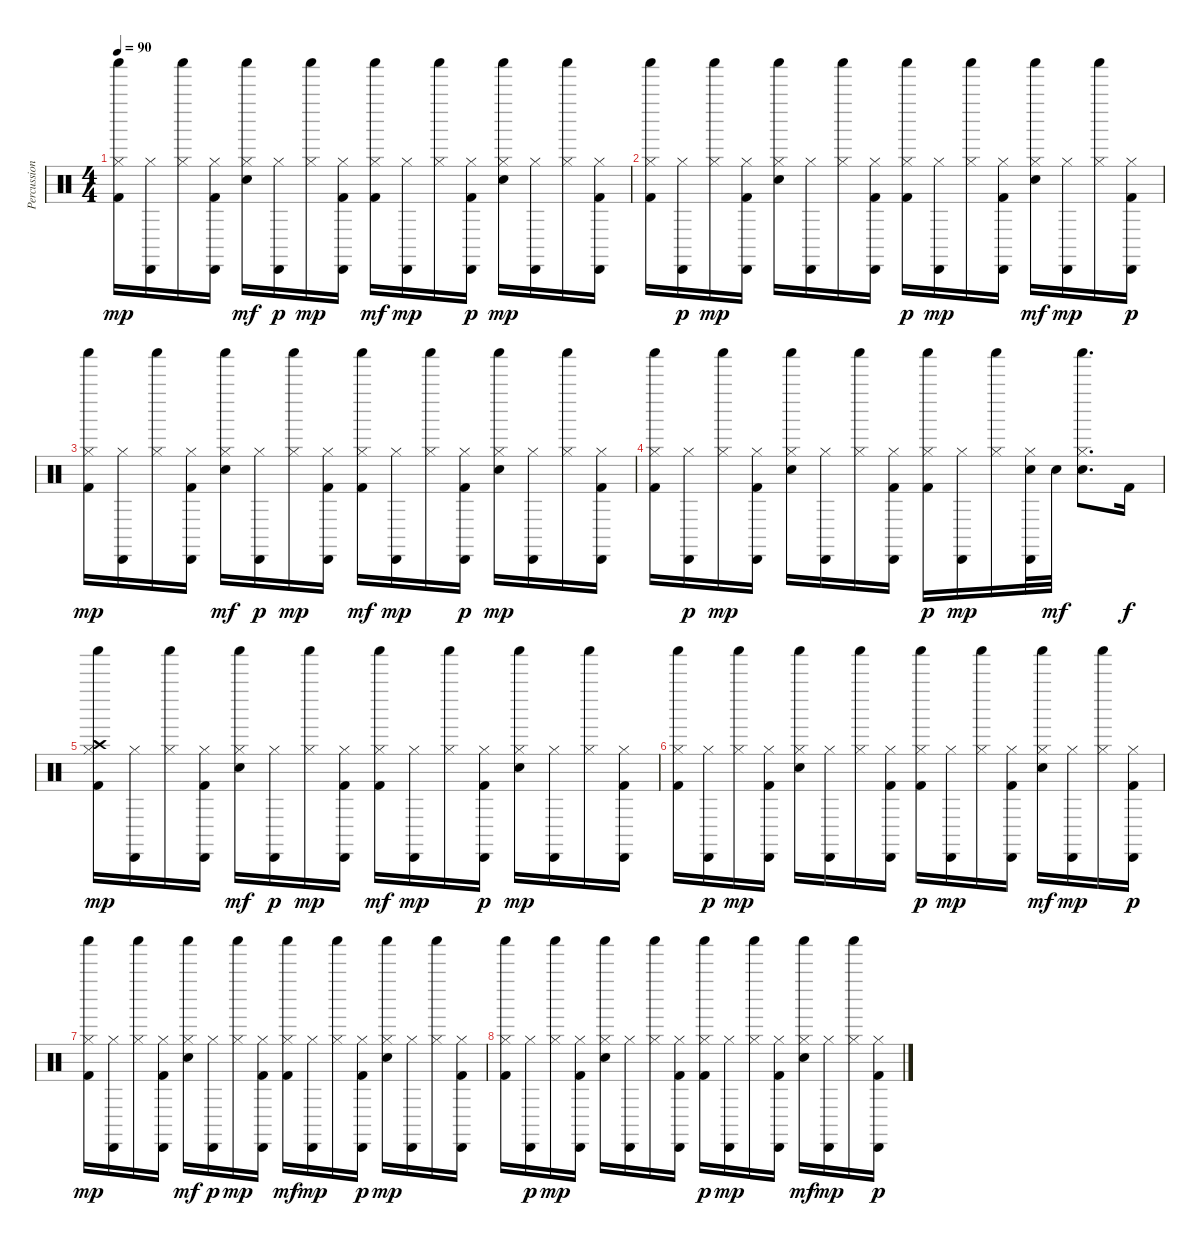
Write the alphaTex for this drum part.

\track ("Percussions" "Percussion") {instrument percussion}
\staff {score}
\articulation defaults
\ts (4 4)
\tempo 90
\clef neutral
\ks c
("Kick (hit) 2" "Hi-Hat (closed)" "Shaker (hit)").16{dy mp} ("Hi-Hat (closed)" "Cabasa (hit)").16 ("Hi-Hat (closed)" "Shaker (hit)").16 ("Kick (hit) 2" "Hi-Hat (closed)" "Cabasa (hit)").16 ("Electric Snare (hit)" "Hi-Hat (closed)" "Shaker (hit)").16{dy mf} ("Hi-Hat (closed)" "Cabasa (hit)").16{dy p} ("Hi-Hat (closed)" "Shaker (hit)").16{dy mp} ("Kick (hit) 2" "Hi-Hat (closed)" "Cabasa (hit)").16 ("Kick (hit) 2" "Hi-Hat (closed)" "Shaker (hit)").16{dy mf} ("Hi-Hat (closed)" "Cabasa (hit)").16{dy mp} ("Hi-Hat (closed)" "Shaker (hit)").16 ("Kick (hit) 2" "Hi-Hat (closed)" "Cabasa (hit)").16{dy p} ("Electric Snare (hit)" "Hi-Hat (closed)" "Shaker (hit)").16{dy mp} ("Hi-Hat (closed)" "Cabasa (hit)").16 ("Hi-Hat (closed)" "Shaker (hit)").16 ("Kick (hit) 2" "Hi-Hat (closed)" "Cabasa (hit)").16 |
("Kick (hit) 2" "Hi-Hat (closed)" "Shaker (hit)").16 ("Hi-Hat (closed)" "Cabasa (hit)").16{dy p} ("Hi-Hat (closed)" "Shaker (hit)").16{dy mp} ("Kick (hit) 2" "Hi-Hat (closed)" "Cabasa (hit)").16 ("Electric Snare (hit)" "Hi-Hat (closed)" "Shaker (hit)").16 ("Hi-Hat (closed)" "Cabasa (hit)").16 ("Hi-Hat (closed)" "Shaker (hit)").16 ("Kick (hit) 2" "Hi-Hat (closed)" "Cabasa (hit)").16 ("Kick (hit) 2" "Hi-Hat (closed)" "Shaker (hit)").16{dy p} ("Hi-Hat (closed)" "Cabasa (hit)").16{dy mp} ("Hi-Hat (closed)" "Shaker (hit)").16 ("Kick (hit) 2" "Hi-Hat (closed)" "Cabasa (hit)").16 ("Electric Snare (hit)" "Hi-Hat (closed)" "Shaker (hit)").16{dy mf} ("Hi-Hat (closed)" "Cabasa (hit)").16{dy mp} ("Hi-Hat (closed)" "Shaker (hit)").16 ("Kick (hit) 2" "Hi-Hat (closed)" "Cabasa (hit)").16{dy p} |
("Kick (hit) 2" "Hi-Hat (closed)" "Shaker (hit)").16{dy mp} ("Hi-Hat (closed)" "Cabasa (hit)").16 ("Hi-Hat (closed)" "Shaker (hit)").16 ("Kick (hit) 2" "Hi-Hat (closed)" "Cabasa (hit)").16 ("Electric Snare (hit)" "Hi-Hat (closed)" "Shaker (hit)").16{dy mf} ("Hi-Hat (closed)" "Cabasa (hit)").16{dy p} ("Hi-Hat (closed)" "Shaker (hit)").16{dy mp} ("Kick (hit) 2" "Hi-Hat (closed)" "Cabasa (hit)").16 ("Kick (hit) 2" "Hi-Hat (closed)" "Shaker (hit)").16{dy mf} ("Hi-Hat (closed)" "Cabasa (hit)").16{dy mp} ("Hi-Hat (closed)" "Shaker (hit)").16 ("Kick (hit) 2" "Hi-Hat (closed)" "Cabasa (hit)").16{dy p} ("Electric Snare (hit)" "Hi-Hat (closed)" "Shaker (hit)").16{dy mp} ("Hi-Hat (closed)" "Cabasa (hit)").16 ("Hi-Hat (closed)" "Shaker (hit)").16 ("Kick (hit) 2" "Hi-Hat (closed)" "Cabasa (hit)").16 |
("Kick (hit) 2" "Hi-Hat (closed)" "Shaker (hit)").16 ("Hi-Hat (closed)" "Cabasa (hit)").16{dy p} ("Hi-Hat (closed)" "Shaker (hit)").16{dy mp} ("Kick (hit) 2" "Hi-Hat (closed)" "Cabasa (hit)").16 ("Electric Snare (hit)" "Hi-Hat (closed)" "Shaker (hit)").16 ("Hi-Hat (closed)" "Cabasa (hit)").16 ("Hi-Hat (closed)" "Shaker (hit)").16 ("Kick (hit) 2" "Hi-Hat (closed)" "Cabasa (hit)").16 ("Kick (hit) 2" "Hi-Hat (closed)" "Shaker (hit)").16{dy p} ("Hi-Hat (closed)" "Cabasa (hit)").16{dy mp} ("Hi-Hat (closed)" "Shaker (hit)").16 ("Electric Snare (hit)" "Hi-Hat (closed)" "Cabasa (hit)").32 "Snare (hit) 2".32{dy mf} ("Electric Snare (hit)" "Hi-Hat (closed)" "Shaker (hit)").8{d} "Kick (hit) 2".16{dy f} |
("Kick (hit) 2" "Hi-Hat (closed)" "Crash high (hit)" "Shaker (hit)").16{dy mp} ("Hi-Hat (closed)" "Cabasa (hit)").16 ("Hi-Hat (closed)" "Shaker (hit)").16 ("Kick (hit) 2" "Hi-Hat (closed)" "Cabasa (hit)").16 ("Electric Snare (hit)" "Hi-Hat (closed)" "Shaker (hit)").16{dy mf} ("Hi-Hat (closed)" "Cabasa (hit)").16{dy p} ("Hi-Hat (closed)" "Shaker (hit)").16{dy mp} ("Kick (hit) 2" "Hi-Hat (closed)" "Cabasa (hit)").16 ("Kick (hit) 2" "Hi-Hat (closed)" "Shaker (hit)").16{dy mf} ("Hi-Hat (closed)" "Cabasa (hit)").16{dy mp} ("Hi-Hat (closed)" "Shaker (hit)").16 ("Kick (hit) 2" "Hi-Hat (closed)" "Cabasa (hit)").16{dy p} ("Electric Snare (hit)" "Hi-Hat (closed)" "Shaker (hit)").16{dy mp} ("Hi-Hat (closed)" "Cabasa (hit)").16 ("Hi-Hat (closed)" "Shaker (hit)").16 ("Kick (hit) 2" "Hi-Hat (closed)" "Cabasa (hit)").16 |
("Kick (hit) 2" "Hi-Hat (closed)" "Shaker (hit)").16 ("Hi-Hat (closed)" "Cabasa (hit)").16{dy p} ("Hi-Hat (closed)" "Shaker (hit)").16{dy mp} ("Kick (hit) 2" "Hi-Hat (closed)" "Cabasa (hit)").16 ("Electric Snare (hit)" "Hi-Hat (closed)" "Shaker (hit)").16 ("Hi-Hat (closed)" "Cabasa (hit)").16 ("Hi-Hat (closed)" "Shaker (hit)").16 ("Kick (hit) 2" "Hi-Hat (closed)" "Cabasa (hit)").16 ("Kick (hit) 2" "Hi-Hat (closed)" "Shaker (hit)").16{dy p} ("Hi-Hat (closed)" "Cabasa (hit)").16{dy mp} ("Hi-Hat (closed)" "Shaker (hit)").16 ("Kick (hit) 2" "Hi-Hat (closed)" "Cabasa (hit)").16 ("Electric Snare (hit)" "Hi-Hat (closed)" "Shaker (hit)").16{dy mf} ("Hi-Hat (closed)" "Cabasa (hit)").16{dy mp} ("Hi-Hat (closed)" "Shaker (hit)").16 ("Kick (hit) 2" "Hi-Hat (closed)" "Cabasa (hit)").16{dy p} |
("Kick (hit) 2" "Hi-Hat (closed)" "Shaker (hit)").16{dy mp} ("Hi-Hat (closed)" "Cabasa (hit)").16 ("Hi-Hat (closed)" "Shaker (hit)").16 ("Kick (hit) 2" "Hi-Hat (closed)" "Cabasa (hit)").16 ("Electric Snare (hit)" "Hi-Hat (closed)" "Shaker (hit)").16{dy mf} ("Hi-Hat (closed)" "Cabasa (hit)").16{dy p} ("Hi-Hat (closed)" "Shaker (hit)").16{dy mp} ("Kick (hit) 2" "Hi-Hat (closed)" "Cabasa (hit)").16 ("Kick (hit) 2" "Hi-Hat (closed)" "Shaker (hit)").16{dy mf} ("Hi-Hat (closed)" "Cabasa (hit)").16{dy mp} ("Hi-Hat (closed)" "Shaker (hit)").16 ("Kick (hit) 2" "Hi-Hat (closed)" "Cabasa (hit)").16{dy p} ("Electric Snare (hit)" "Hi-Hat (closed)" "Shaker (hit)").16{dy mp} ("Hi-Hat (closed)" "Cabasa (hit)").16 ("Hi-Hat (closed)" "Shaker (hit)").16 ("Kick (hit) 2" "Hi-Hat (closed)" "Cabasa (hit)").16 |
("Kick (hit) 2" "Hi-Hat (closed)" "Shaker (hit)").16 ("Hi-Hat (closed)" "Cabasa (hit)").16{dy p} ("Hi-Hat (closed)" "Shaker (hit)").16{dy mp} ("Kick (hit) 2" "Hi-Hat (closed)" "Cabasa (hit)").16 ("Electric Snare (hit)" "Hi-Hat (closed)" "Shaker (hit)").16 ("Hi-Hat (closed)" "Cabasa (hit)").16 ("Hi-Hat (closed)" "Shaker (hit)").16 ("Kick (hit) 2" "Hi-Hat (closed)" "Cabasa (hit)").16 ("Kick (hit) 2" "Hi-Hat (closed)" "Shaker (hit)").16{dy p} ("Hi-Hat (closed)" "Cabasa (hit)").16{dy mp} ("Hi-Hat (closed)" "Shaker (hit)").16 ("Kick (hit) 2" "Hi-Hat (closed)" "Cabasa (hit)").16 ("Electric Snare (hit)" "Hi-Hat (closed)" "Shaker (hit)").16{dy mf} ("Hi-Hat (closed)" "Cabasa (hit)").16{dy mp} ("Hi-Hat (closed)" "Shaker (hit)").16 ("Kick (hit) 2" "Hi-Hat (closed)" "Cabasa (hit)").16{dy p}
